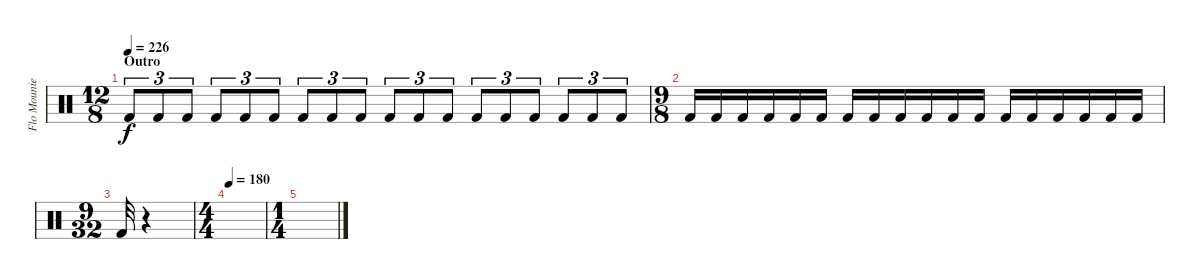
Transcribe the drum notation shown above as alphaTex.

\track ("Flo Mounier " "Flo Mounie") {instrument percussion}
\staff {score}
\articulation defaults
\ts (12 8)
\section ("" "Outro")
\tempo 226
\clef neutral
\ks c "Kick (hit) 2".8{tu (3 2) dy f} "Kick (hit) 2".8{tu (3 2)} "Kick (hit) 2".8{tu (3 2)} "Kick (hit) 2".8{tu (3 2)} "Kick (hit) 2".8{tu (3 2)} "Kick (hit) 2".8{tu (3 2)} "Kick (hit) 2".8{tu (3 2)} "Kick (hit) 2".8{tu (3 2)} "Kick (hit) 2".8{tu (3 2)} "Kick (hit) 2".8{tu (3 2)} "Kick (hit) 2".8{tu (3 2)} "Kick (hit) 2".8{tu (3 2)} "Kick (hit) 2".8{tu (3 2)} "Kick (hit) 2".8{tu (3 2)} "Kick (hit) 2".8{tu (3 2)} "Kick (hit) 2".8{tu (3 2)} "Kick (hit) 2".8{tu (3 2)} "Kick (hit) 2".8{tu (3 2)}
|
\ts (9 8)
"Kick (hit) 2".16 "Kick (hit) 2".16 "Kick (hit) 2".16 "Kick (hit) 2".16 "Kick (hit) 2".16 "Kick (hit) 2".16 "Kick (hit) 2".16 "Kick (hit) 2".16 "Kick (hit) 2".16 "Kick (hit) 2".16 "Kick (hit) 2".16 "Kick (hit) 2".16 "Kick (hit) 2".16 "Kick (hit) 2".16 "Kick (hit) 2".16 "Kick (hit) 2".16 "Kick (hit) 2".16 "Kick (hit) 2".16 |
\ts (9 32)
"Kick (hit) 2".32 r.4 |
\ts (4 4)
\tempo 180
|
\ts (1 4)
